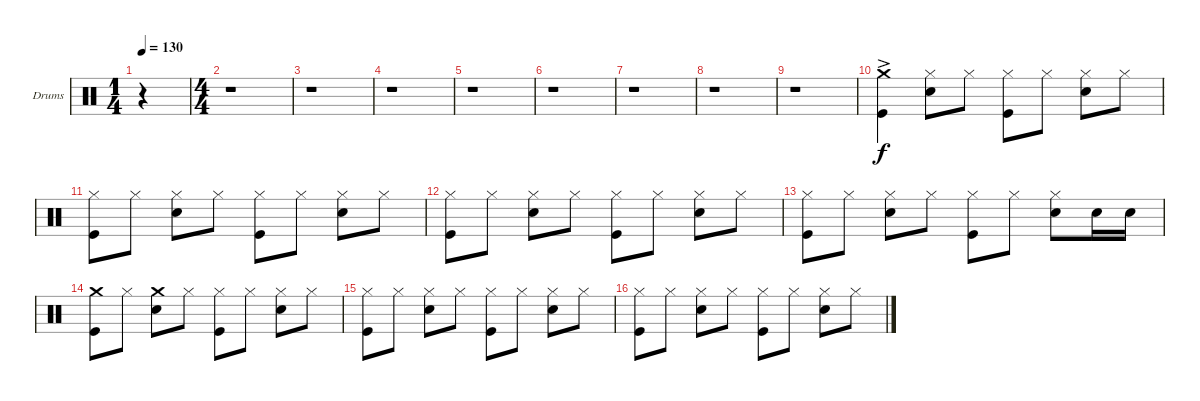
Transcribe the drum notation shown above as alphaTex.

\defaultSystemsLayout 4
\bracketExtendMode groupsimilarinstruments
\firstSystemTrackNameOrientation horizontal
\otherSystemsTrackNameOrientation horizontal
\track ("Stefan Kaufmann" "Drums") {instrument percussion}
\staff {score}
\articulation defaults
\ts (1 4)
\tempo 130
\clef neutral
\ks c
r.4{dy f} |
\ts (4 4)
r.1 |
r.1 |
r.1 |
r.1 |
r.1 |
r.1 |
r.1 |
r.1 |
("Crash medium (hit)"{ac} "Kick (hit)"{ac}).4 ("Hi-Hat (closed)" "Snare (hit) 2").8 "Hi-Hat (closed)".8 ("Hi-Hat (closed)" "Kick (hit)").8 "Hi-Hat (closed)".8 ("Hi-Hat (closed)" "Snare (hit) 2").8 "Hi-Hat (closed)".8 |
("Hi-Hat (closed)" "Kick (hit)").8 "Hi-Hat (closed)".8 ("Hi-Hat (closed)" "Snare (hit) 2").8 "Hi-Hat (closed)".8 ("Hi-Hat (closed)" "Kick (hit)").8 "Hi-Hat (closed)".8 ("Hi-Hat (closed)" "Snare (hit) 2").8 "Hi-Hat (closed)".8 |
("Hi-Hat (closed)" "Kick (hit)").8 "Hi-Hat (closed)".8 ("Hi-Hat (closed)" "Snare (hit) 2").8 "Hi-Hat (closed)".8 ("Hi-Hat (closed)" "Kick (hit)").8 "Hi-Hat (closed)".8 ("Hi-Hat (closed)" "Snare (hit) 2").8 "Hi-Hat (closed)".8 |
("Hi-Hat (closed)" "Kick (hit)").8 "Hi-Hat (closed)".8 ("Hi-Hat (closed)" "Snare (hit) 2").8 "Hi-Hat (closed)".8 ("Hi-Hat (closed)" "Kick (hit)").8 "Hi-Hat (closed)".8 ("Hi-Hat (closed)" "Snare (hit) 2").8 "Snare (hit) 2".16 "Snare (hit) 2".16 |
("Crash medium (hit)" "Kick (hit)").8 "Hi-Hat (closed)".8 ("Crash medium (hit)" "Snare (hit) 2").8 "Hi-Hat (closed)".8 ("Hi-Hat (closed)" "Kick (hit)").8 "Hi-Hat (closed)".8 ("Hi-Hat (closed)" "Snare (hit) 2").8 "Hi-Hat (closed)".8 |
("Hi-Hat (closed)" "Kick (hit)").8 "Hi-Hat (closed)".8 ("Hi-Hat (closed)" "Snare (hit) 2").8 "Hi-Hat (closed)".8 ("Hi-Hat (closed)" "Kick (hit)").8 "Hi-Hat (closed)".8 ("Hi-Hat (closed)" "Snare (hit) 2").8 "Hi-Hat (closed)".8 |
("Hi-Hat (closed)" "Kick (hit)").8 "Hi-Hat (closed)".8 ("Hi-Hat (closed)" "Snare (hit) 2").8 "Hi-Hat (closed)".8 ("Hi-Hat (closed)" "Kick (hit)").8 "Hi-Hat (closed)".8 ("Hi-Hat (closed)" "Snare (hit) 2").8 "Hi-Hat (closed)".8
